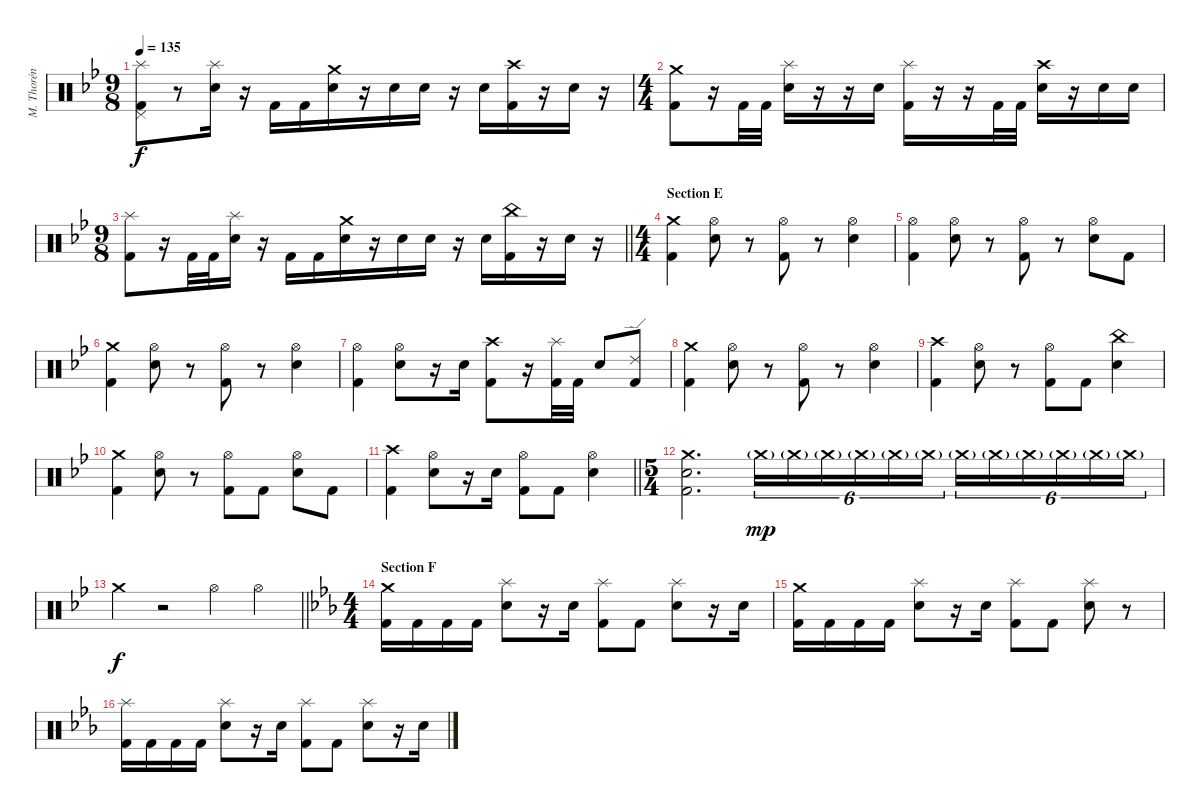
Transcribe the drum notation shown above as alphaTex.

\track ("M. Thorén (Drums)" "M. Thorén ") {instrument percussion}
\staff {score}
\articulation defaults
\ts (9 8)
\tempo 135
\clef neutral
\ks gminor
("Splash (hit)" "Pedal Hi-Hat (hit)" "Kick (hit) 2").8{dy f} r.8 ("Splash (hit)" "Electric Snare (hit)").16 r.16 "Kick (hit) 2".16 "Kick (hit) 2".16 ("Crash medium (hit)" "Electric Snare (hit)").16 r.16 "Electric Snare (hit)".16 "Electric Snare (hit)".16 r.16 "Electric Snare (hit)".16 ("Crash high (hit)" "Kick (hit) 2").16 r.16 "Electric Snare (hit)".16 r.16 |
\ts (4 4)
("Crash medium (hit)" "Kick (hit) 2").8 r.16 "Kick (hit) 2".32 "Kick (hit) 2".32 ("Splash (hit)" "Electric Snare (hit)").16 r.16 r.16 "Electric Snare (hit)".16 ("Splash (hit)" "Kick (hit) 2").16 r.16 r.16 "Kick (hit) 2".32 "Kick (hit) 2".32 ("Crash high (hit)" "Electric Snare (hit)").16 r.16 "Electric Snare (hit)".16 "Electric Snare (hit)".16 |
\ts (9 8)
\barLineRight lightlight
("Splash (hit)" "Kick (hit) 2").8 r.16 "Kick (hit) 2".32 "Kick (hit) 2".32 ("Splash (hit)" "Electric Snare (hit)").16 r.16 "Kick (hit) 2".16 "Kick (hit) 2".16 ("Crash medium (hit)" "Electric Snare (hit)").16 r.16 "Electric Snare (hit)".16 "Electric Snare (hit)".16 r.16 "Electric Snare (hit)".16 ("China (hit)" "Kick (hit) 2").16 r.16 "Electric Snare (hit)".16 r.16 |
\ts (4 4)
\section ("" "Section E")
("Crash medium (hit)" "Kick (hit) 2").4 ("Hi-Hat (open)" "Electric Snare (hit)").8 r.8 ("Hi-Hat (open)" "Kick (hit) 2").8 r.8 ("Hi-Hat (open)" "Electric Snare (hit)").4 |
("Hi-Hat (open)" "Kick (hit) 2").4 ("Hi-Hat (open)" "Electric Snare (hit)").8 r.8 ("Hi-Hat (open)" "Kick (hit) 2").8 r.8 ("Hi-Hat (open)" "Electric Snare (hit)").8 "Kick (hit) 2".8 |
("Crash medium (hit)" "Kick (hit) 2").4 ("Hi-Hat (open)" "Electric Snare (hit)").8 r.8 ("Hi-Hat (open)" "Kick (hit) 2").8 r.8 ("Hi-Hat (open)" "Electric Snare (hit)").4 |
("Hi-Hat (open)" "Kick (hit) 2").4 ("Hi-Hat (open)" "Electric Snare (hit)").8 r.16 "Electric Snare (hit)".16 ("Crash high (hit)" "Kick (hit) 2").8 r.16 ("Splash (hit)" "Kick (hit) 2").32 "Kick (hit) 2".32 "Electric Snare (hit)".8 ("Ride (edge) 2" "Kick (hit) 2").8 |
("Crash medium (hit)" "Kick (hit) 2").4 ("Hi-Hat (open)" "Electric Snare (hit)").8 r.8 ("Hi-Hat (open)" "Kick (hit) 2").8 r.8 ("Hi-Hat (open)" "Electric Snare (hit)").4 |
("Crash high (hit)" "Kick (hit) 2").4 ("Hi-Hat (open)" "Electric Snare (hit)").8 r.8 ("Hi-Hat (open)" "Kick (hit) 2").8 "Kick (hit) 2".8 ("China (hit)" "Electric Snare (hit)").4 |
("Crash medium (hit)" "Kick (hit) 2").4 ("Hi-Hat (open)" "Electric Snare (hit)").8 r.8 ("Hi-Hat (open)" "Kick (hit) 2").8 "Kick (hit) 2".8 ("Hi-Hat (open)" "Electric Snare (hit)").8 "Kick (hit) 2".8 |
\barLineRight lightlight
("Crash high (hit)" "Kick (hit) 2").4 ("Hi-Hat (open)" "Electric Snare (hit)").8 r.16 "Electric Snare (hit)".16 ("Hi-Hat (open)" "Kick (hit) 2").8 "Kick (hit) 2".8 ("Hi-Hat (open)" "Electric Snare (hit)").4 |
\ts (5 4)
("Crash medium (hit)" "Electric Snare (hit)" "Kick (hit) 2").2{d} "Crash medium (hit)"{g}.16{tu (6 4) dy mp volume 0} "Crash medium (hit)"{g}.16{tu (6 4) volume 12} "Crash medium (hit)"{g}.16{tu (6 4)} "Crash medium (hit)"{g}.16{tu (6 4)} "Crash medium (hit)"{g}.16{tu (6 4)} "Crash medium (hit)"{g}.16{tu (6 4)} "Crash medium (hit)"{g}.16{tu (6 4)} "Crash medium (hit)"{g}.16{tu (6 4)} "Crash medium (hit)"{g}.16{tu (6 4)} "Crash medium (hit)"{g}.16{tu (6 4)} "Crash medium (hit)"{g}.16{tu (6 4)} "Crash medium (hit)"{g}.16{tu (6 4)} |
\barLineRight lightlight "Crash medium (hit)".4{dy f}
r.2 "Hi-Hat (open)".4 "Hi-Hat (open)".4 |
\ts (4 4)
\section ("" "Section F")
\ks cminor
("Crash medium (hit)" "Kick (hit) 2").16 "Kick (hit) 2".16 "Kick (hit) 2".16 "Kick (hit) 2".16 ("Splash (hit)" "Electric Snare (hit)").8 r.16 "Electric Snare (hit)".16 ("Splash (hit)" "Kick (hit) 2").8 "Kick (hit) 2".8 ("Splash (hit)" "Electric Snare (hit)").8 r.16 "Electric Snare (hit)".16 |
("Crash medium (hit)" "Kick (hit) 2").16 "Kick (hit) 2".16 "Kick (hit) 2".16 "Kick (hit) 2".16 ("Splash (hit)" "Electric Snare (hit)").8 r.16 "Electric Snare (hit)".16 ("Splash (hit)" "Kick (hit) 2").8 "Kick (hit) 2".8 ("Splash (hit)" "Electric Snare (hit)").8 r.8 |
("Splash (hit)" "Kick (hit) 2").16 "Kick (hit) 2".16 "Kick (hit) 2".16 "Kick (hit) 2".16 ("Splash (hit)" "Electric Snare (hit)").8 r.16 "Electric Snare (hit)".16 ("Splash (hit)" "Kick (hit) 2").8 "Kick (hit) 2".8 ("Splash (hit)" "Electric Snare (hit)").8 r.16 "Electric Snare (hit)".16
